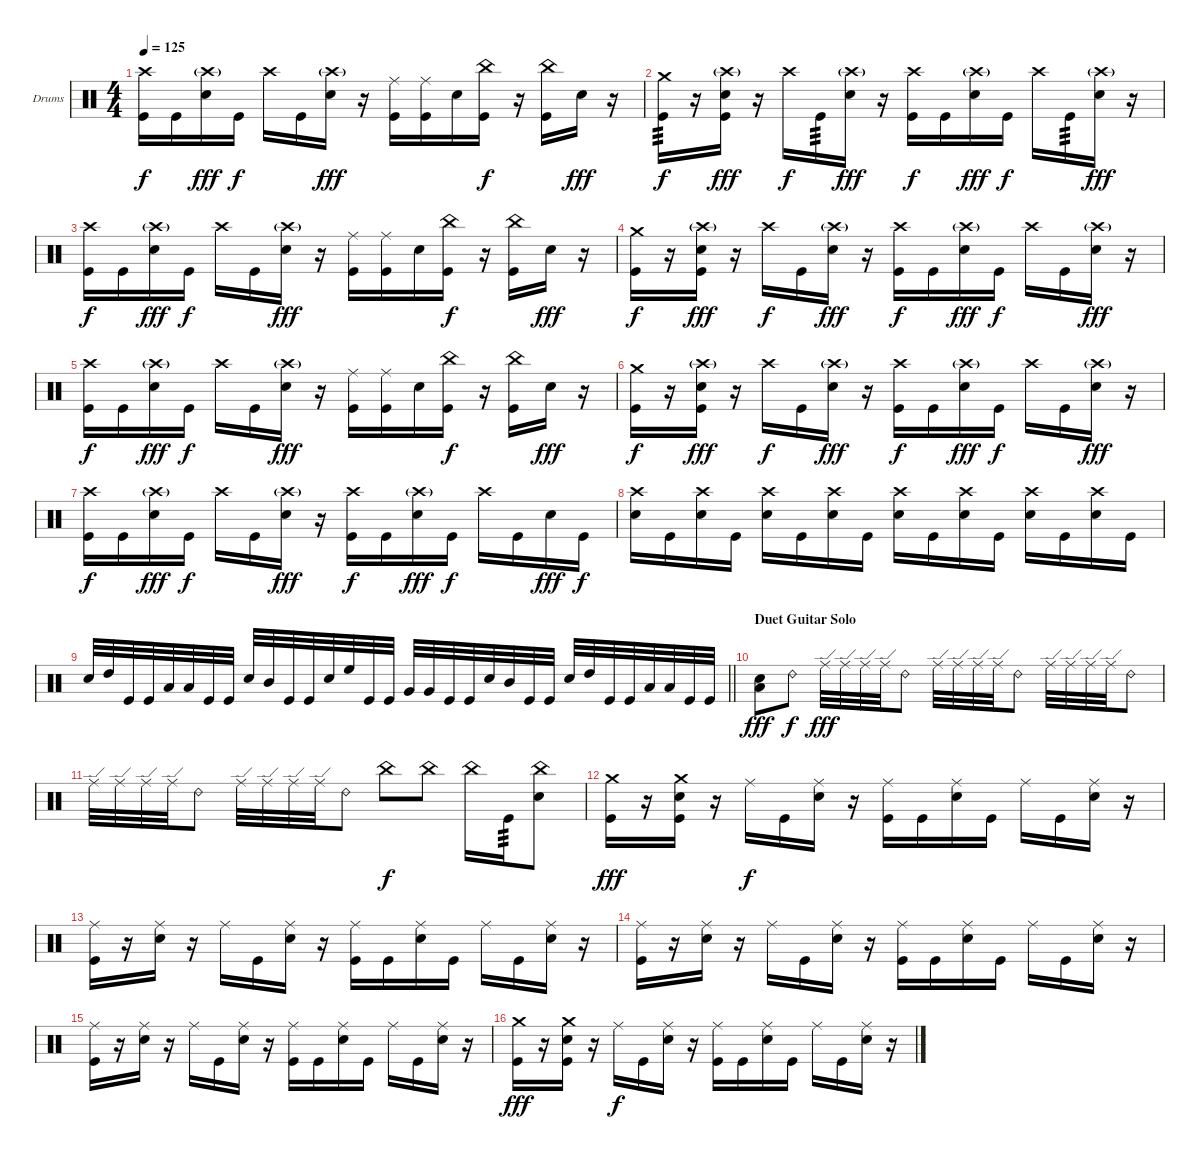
\bracketExtendMode groupsimilarinstruments
\firstSystemTrackNameOrientation horizontal
\otherSystemsTrackNameOrientation horizontal
\track ("Drumkit" "Drums") {instrument percussion}
\staff {score}
\articulation defaults
\ts (4 4)
\tempo 125
\clef neutral
\ks c
("Crash high (hit)" "Kick (hit)").16{dy f} "Kick (hit)".16 ("Crash high (hit)"{g} "Snare (hit) 2").16{dy fff} "Kick (hit)".16{dy f} "Crash high (hit)".16 "Kick (hit)".16 ("Crash high (hit)"{g} "Snare (hit) 2").16{dy fff} r.16 ("Ride (middle)" "Kick (hit)").16 ("Ride (middle)" "Kick (hit)").16 "Snare (hit) 2".16 ("China (hit)" "Kick (hit)").16{dy f} r.16 ("China (hit)" "Kick (hit)").16 "Snare (hit) 2".16{dy fff} r.16 |
("Crash medium (hit)" "Kick (hit)").16{tp 3 dy f} r.16 ("Crash high (hit)"{g} "Snare (hit) 2" "Kick (hit)").16{dy fff} r.16 "Crash high (hit)".16{dy f} "Kick (hit)".16{tp 3} ("Crash high (hit)"{g} "Snare (hit) 2").16{dy fff} r.16 ("Crash high (hit)" "Kick (hit)").16{dy f} "Kick (hit)".16 ("Crash high (hit)"{g} "Snare (hit) 2").16{dy fff} "Kick (hit)".16{dy f} "Crash high (hit)".16 "Kick (hit)".16{tp 3} ("Crash high (hit)"{g} "Snare (hit) 2").16{dy fff} r.16 |
("Crash high (hit)" "Kick (hit)").16{dy f} "Kick (hit)".16 ("Crash high (hit)"{g} "Snare (hit) 2").16{dy fff} "Kick (hit)".16{dy f} "Crash high (hit)".16 "Kick (hit)".16 ("Crash high (hit)"{g} "Snare (hit) 2").16{dy fff} r.16 ("Ride (middle)" "Kick (hit)").16 ("Ride (middle)" "Kick (hit)").16 "Snare (hit) 2".16 ("China (hit)" "Kick (hit)").16{dy f} r.16 ("China (hit)" "Kick (hit)").16 "Snare (hit) 2".16{dy fff} r.16 |
("Crash medium (hit)" "Kick (hit)").16{dy f} r.16 ("Crash high (hit)"{g} "Snare (hit) 2" "Kick (hit)").16{dy fff} r.16 "Crash high (hit)".16{dy f} "Kick (hit)".16 ("Crash high (hit)"{g} "Snare (hit) 2").16{dy fff} r.16 ("Crash high (hit)" "Kick (hit)").16{dy f} "Kick (hit)".16 ("Crash high (hit)"{g} "Snare (hit) 2").16{dy fff} "Kick (hit)".16{dy f} "Crash high (hit)".16 "Kick (hit)".16 ("Crash high (hit)"{g} "Snare (hit) 2").16{dy fff} r.16 |
("Crash high (hit)" "Kick (hit)").16{dy f} "Kick (hit)".16 ("Crash high (hit)"{g} "Snare (hit) 2").16{dy fff} "Kick (hit)".16{dy f} "Crash high (hit)".16 "Kick (hit)".16 ("Crash high (hit)"{g} "Snare (hit) 2").16{dy fff} r.16 ("Ride (middle)" "Kick (hit)").16 ("Ride (middle)" "Kick (hit)").16 "Snare (hit) 2".16 ("China (hit)" "Kick (hit)").16{dy f} r.16 ("China (hit)" "Kick (hit)").16 "Snare (hit) 2".16{dy fff} r.16 |
("Crash medium (hit)" "Kick (hit)").16{dy f} r.16 ("Crash high (hit)"{g} "Snare (hit) 2" "Kick (hit)").16{dy fff} r.16 "Crash high (hit)".16{dy f} "Kick (hit)".16 ("Crash high (hit)"{g} "Snare (hit) 2").16{dy fff} r.16 ("Crash high (hit)" "Kick (hit)").16{dy f} "Kick (hit)".16 ("Crash high (hit)"{g} "Snare (hit) 2").16{dy fff} "Kick (hit)".16{dy f} "Crash high (hit)".16 "Kick (hit)".16 ("Crash high (hit)"{g} "Snare (hit) 2").16{dy fff} r.16 |
("Crash high (hit)" "Kick (hit)").16{dy f} "Kick (hit)".16 ("Crash high (hit)"{g} "Snare (hit) 2").16{dy fff} "Kick (hit)".16{dy f} "Crash high (hit)".16 "Kick (hit)".16 ("Crash high (hit)"{g} "Snare (hit) 2").16{dy fff} r.16 ("Crash high (hit)" "Kick (hit)").16{dy f} "Kick (hit)".16 ("Crash high (hit)"{g} "Snare (hit) 2").16{dy fff} "Kick (hit)".16{dy f} "Crash high (hit)".16 "Kick (hit)".16 "Snare (hit) 2".16{dy fff} "Kick (hit)".16{dy f} |
("Crash high (hit)" "Snare (hit) 2").16 "Kick (hit)".16 ("Crash high (hit)" "Snare (hit) 2").16 "Kick (hit)".16 ("Crash high (hit)" "Snare (hit) 2").16 "Kick (hit)".16 ("Crash high (hit)" "Snare (hit) 2").16 "Kick (hit)".16 ("Crash high (hit)" "Snare (hit) 2").16 "Kick (hit)".16 ("Crash high (hit)" "Snare (hit) 2").16 "Kick (hit)".16 ("Crash high (hit)" "Snare (hit) 2").16 "Kick (hit)".16 ("Crash high (hit)" "Snare (hit) 2").16 "Kick (hit)".16 |
\barLineRight lightlight "Snare (hit) 2".32 "High Tom (hit)".32 "Kick (hit)".32 "Kick (hit)".32 "Low Tom (hit)".32 "Low Tom (hit)".32 "Kick (hit)".32 "Kick (hit)".32 "Snare (hit) 2".32 "Mid Tom (hit)".32 "Kick (hit)".32 "Kick (hit)".32 "Snare (hit) 2".32 "High Floor Tom (hit)".32 "Kick (hit)".32 "Kick (hit)".32 "Very Low Tom (hit)".32 "Very Low Tom (hit)".32 "Kick (hit)".32 "Kick (hit)".32 "Snare (hit) 2".32 "Mid Tom (hit)".32 "Kick (hit)".32 "Kick (hit)".32 "Snare (hit) 2".32 "High Tom (hit)".32 "Kick (hit)".32 "Kick (hit)".32 "Low Tom (hit)".32 "Low Tom (hit)".32 "Kick (hit)".32 "Kick (hit)".32
|
\section ("" "Duet Guitar Solo")
("Snare (hit) 2" "Low Tom (hit)").8{dy fff} "Ride (bell) 2".8{dy f} "Ride (edge)".32{dy fff} "Ride (edge)".32 "Ride (edge)".32 "Ride (edge)".32 "Ride (bell) 2".8 "Ride (edge)".32 "Ride (edge)".32 "Ride (edge)".32 "Ride (edge)".32 "Ride (bell) 2".8 "Ride (edge)".32 "Ride (edge)".32 "Ride (edge)".32 "Ride (edge)".32 "Ride (bell) 2".8 |
"Ride (edge)".32 "Ride (edge)".32 "Ride (edge)".32 "Ride (edge)".32 "Ride (bell) 2".8 "Ride (edge)".32 "Ride (edge)".32 "Ride (edge)".32 "Ride (edge)".32 "Ride (bell) 2".8 "China (hit)".8{dy f} "China (hit)".8 "China (hit)".16 "Kick (hit)".16{tp 3} ("China (hit)" "Snare (hit) 2").8 |
("Crash medium (hit)" "Kick (hit)").16{dy fff} r.16 ("Crash medium (hit)" "Snare (hit) 2" "Kick (hit)").16 r.16 "Ride (middle)".16{dy f} "Kick (hit)".16 ("Ride (middle)" "Snare (hit) 2").16 r.16 ("Ride (middle)" "Kick (hit)").16 "Kick (hit)".16 ("Ride (middle)" "Snare (hit) 2").16 "Kick (hit)".16 "Ride (middle)".16 "Kick (hit)".16 ("Ride (middle)" "Snare (hit) 2").16 r.16 |
("Ride (middle)" "Kick (hit)").16 r.16 ("Ride (middle)" "Snare (hit) 2").16 r.16 "Ride (middle)".16 "Kick (hit)".16 ("Ride (middle)" "Snare (hit) 2").16 r.16 ("Ride (middle)" "Kick (hit)").16 "Kick (hit)".16 ("Ride (middle)" "Snare (hit) 2").16 "Kick (hit)".16 "Ride (middle)".16 "Kick (hit)".16 ("Ride (middle)" "Snare (hit) 2").16 r.16 |
("Ride (middle)" "Kick (hit)").16 r.16 ("Ride (middle)" "Snare (hit) 2").16 r.16 "Ride (middle)".16 "Kick (hit)".16 ("Ride (middle)" "Snare (hit) 2").16 r.16 ("Ride (middle)" "Kick (hit)").16 "Kick (hit)".16 ("Ride (middle)" "Snare (hit) 2").16 "Kick (hit)".16 "Ride (middle)".16 "Kick (hit)".16 ("Ride (middle)" "Snare (hit) 2").16 r.16 |
("Ride (middle)" "Kick (hit)").16 r.16 ("Ride (middle)" "Snare (hit) 2").16 r.16 "Ride (middle)".16 "Kick (hit)".16 ("Ride (middle)" "Snare (hit) 2").16 r.16 ("Ride (middle)" "Kick (hit)").16 "Kick (hit)".16 ("Ride (middle)" "Snare (hit) 2").16 "Kick (hit)".16 "Ride (middle)".16 "Kick (hit)".16 ("Ride (middle)" "Snare (hit) 2").16 r.16 |
("Crash medium (hit)" "Kick (hit)").16{dy fff} r.16 ("Crash medium (hit)" "Snare (hit) 2" "Kick (hit)").16 r.16 "Ride (middle)".16{dy f} "Kick (hit)".16 ("Ride (middle)" "Snare (hit) 2").16 r.16 ("Ride (middle)" "Kick (hit)").16 "Kick (hit)".16 ("Ride (middle)" "Snare (hit) 2").16 "Kick (hit)".16 "Ride (middle)".16 "Kick (hit)".16 ("Ride (middle)" "Snare (hit) 2").16 r.16
